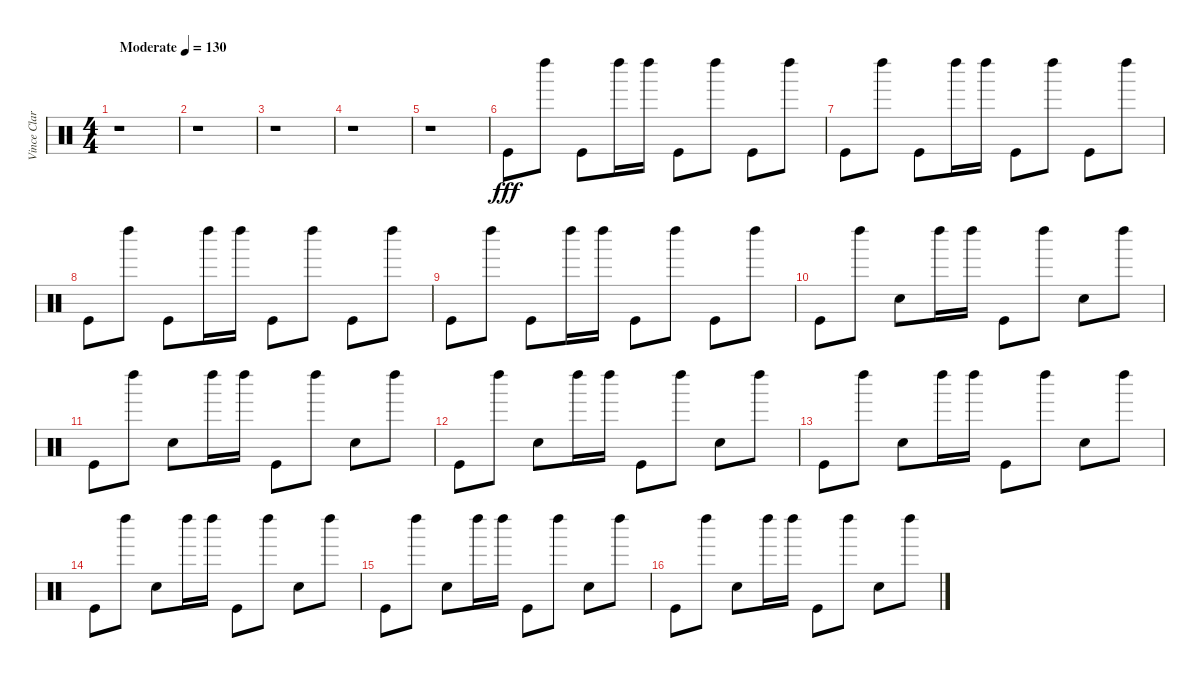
\track ("Vince Clarke" "Vince Clar") {instrument percussion}
\staff {score}
\articulation defaults
\ts (4 4)
\tempo (130 "Moderate")
\clef neutral
\ks c
r.1{dy fff} |
r.1 |
r.1 |
r.1 |
r.1 |
"Kick (hit)".8 "Left Maraca (hit)".8 "Kick (hit)".8 "Left Maraca (hit)".16 "Left Maraca (hit)".16 "Kick (hit)".8 "Left Maraca (hit)".8 "Kick (hit)".8 "Left Maraca (hit)".8 |
"Kick (hit)".8 "Left Maraca (hit)".8 "Kick (hit)".8 "Left Maraca (hit)".16 "Left Maraca (hit)".16 "Kick (hit)".8 "Left Maraca (hit)".8 "Kick (hit)".8 "Left Maraca (hit)".8 |
"Kick (hit)".8 "Left Maraca (hit)".8 "Kick (hit)".8 "Left Maraca (hit)".16 "Left Maraca (hit)".16 "Kick (hit)".8 "Left Maraca (hit)".8 "Kick (hit)".8 "Left Maraca (hit)".8 |
"Kick (hit)".8 "Left Maraca (hit)".8 "Kick (hit)".8 "Left Maraca (hit)".16 "Left Maraca (hit)".16 "Kick (hit)".8 "Left Maraca (hit)".8 "Kick (hit)".8 "Left Maraca (hit)".8 |
"Kick (hit)".8 "Left Maraca (hit)".8 "Snare (hit) 2".8 "Left Maraca (hit)".16 "Left Maraca (hit)".16 "Kick (hit)".8 "Left Maraca (hit)".8 "Snare (hit) 2".8 "Left Maraca (hit)".8 |
"Kick (hit)".8 "Left Maraca (hit)".8 "Snare (hit) 2".8 "Left Maraca (hit)".16 "Left Maraca (hit)".16 "Kick (hit)".8 "Left Maraca (hit)".8 "Snare (hit) 2".8 "Left Maraca (hit)".8 |
"Kick (hit)".8 "Left Maraca (hit)".8 "Snare (hit) 2".8 "Left Maraca (hit)".16 "Left Maraca (hit)".16 "Kick (hit)".8 "Left Maraca (hit)".8 "Snare (hit) 2".8 "Left Maraca (hit)".8 |
"Kick (hit)".8 "Left Maraca (hit)".8 "Snare (hit) 2".8 "Left Maraca (hit)".16 "Left Maraca (hit)".16 "Kick (hit)".8 "Left Maraca (hit)".8 "Snare (hit) 2".8 "Left Maraca (hit)".8 |
"Kick (hit)".8 "Left Maraca (hit)".8 "Snare (hit) 2".8 "Left Maraca (hit)".16 "Left Maraca (hit)".16 "Kick (hit)".8 "Left Maraca (hit)".8 "Snare (hit) 2".8 "Left Maraca (hit)".8 |
"Kick (hit)".8 "Left Maraca (hit)".8 "Snare (hit) 2".8 "Left Maraca (hit)".16 "Left Maraca (hit)".16 "Kick (hit)".8 "Left Maraca (hit)".8 "Snare (hit) 2".8 "Left Maraca (hit)".8 |
"Kick (hit)".8 "Left Maraca (hit)".8 "Snare (hit) 2".8 "Left Maraca (hit)".16 "Left Maraca (hit)".16 "Kick (hit)".8 "Left Maraca (hit)".8 "Snare (hit) 2".8 "Left Maraca (hit)".8
